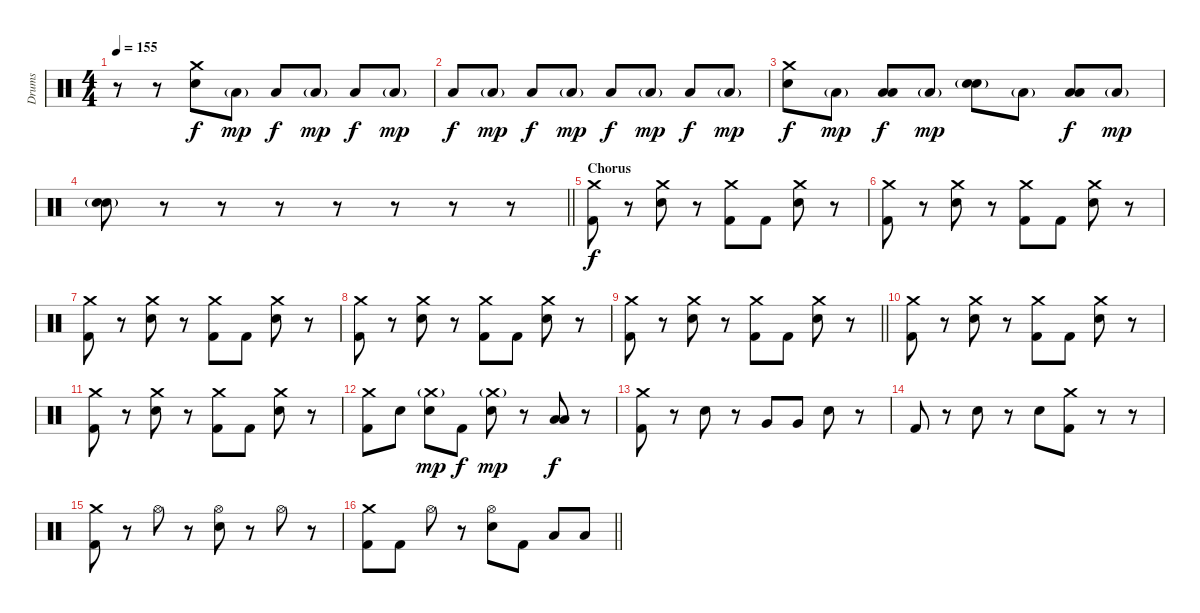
\track ("Drums" "Drums") {instrument percussion}
\staff {score}
\articulation defaults
\ts (4 4)
\tempo 155
\clef neutral
\ks c
r.8{dy f} r.8 ("Crash medium (hit)" "Electric Snare (hit)").8 "Low Tom (hit)"{g}.8{dy mp} "Low Tom (hit)".8{dy f} "Low Tom (hit)"{g}.8{dy mp} "Low Tom (hit)".8{dy f} "Low Tom (hit)"{g}.8{dy mp} |
"Low Tom (hit)".8{dy f} "Low Tom (hit)"{g}.8{dy mp} "Low Tom (hit)".8{dy f} "Low Tom (hit)"{g}.8{dy mp} "Low Tom (hit)".8{dy f} "Low Tom (hit)"{g}.8{dy mp} "Low Tom (hit)".8{dy f} "Low Tom (hit)"{g}.8{dy mp} |
("Crash medium (hit)" "Electric Snare (hit)").8{dy f} "Low Tom (hit)"{g}.8{dy mp} ("Low Tom (hit)" "Low Tom (hit)").8{dy f} "Low Tom (hit)"{g}.8{dy mp} ("Electric Snare (hit)"{g} "Electric Snare (hit)").8 "Low Tom (hit)"{g}.8 ("Low Tom (hit)" "Low Tom (hit)").8{dy f} "Low Tom (hit)"{g}.8{dy mp} |
\barLineRight lightlight
("Electric Snare (hit)"{g} "Electric Snare (hit)").8 r.8 r.8 r.8 r.8 r.8 r.8 r.8 |
\section ("" "Chorus")
("Crash medium (hit)" "Kick (hit) 2").8{dy f} r.8 ("Crash medium (hit)" "Electric Snare (hit)").8 r.8 ("Crash medium (hit)" "Kick (hit) 2").8 "Kick (hit) 2".8 ("Crash medium (hit)" "Electric Snare (hit)").8 r.8 |
("Crash medium (hit)" "Kick (hit) 2").8 r.8 ("Crash medium (hit)" "Electric Snare (hit)").8 r.8 ("Crash medium (hit)" "Kick (hit) 2").8 "Kick (hit) 2".8 ("Crash medium (hit)" "Electric Snare (hit)").8 r.8 |
("Crash medium (hit)" "Kick (hit) 2").8 r.8 ("Crash medium (hit)" "Electric Snare (hit)").8 r.8 ("Crash medium (hit)" "Kick (hit) 2").8 "Kick (hit) 2".8 ("Crash medium (hit)" "Electric Snare (hit)").8 r.8 |
("Crash medium (hit)" "Kick (hit) 2").8 r.8 ("Crash medium (hit)" "Electric Snare (hit)").8 r.8 ("Crash medium (hit)" "Kick (hit) 2").8 "Kick (hit) 2".8 ("Crash medium (hit)" "Electric Snare (hit)").8 r.8 |
\barLineRight lightlight
("Crash medium (hit)" "Kick (hit) 2").8 r.8 ("Crash medium (hit)" "Electric Snare (hit)").8 r.8 ("Crash medium (hit)" "Kick (hit) 2").8 "Kick (hit) 2".8 ("Crash medium (hit)" "Electric Snare (hit)").8 r.8 |
("Crash medium (hit)" "Kick (hit) 2").8 r.8 ("Crash medium (hit)" "Electric Snare (hit)").8 r.8 ("Crash medium (hit)" "Kick (hit) 2").8 "Kick (hit) 2".8 ("Crash medium (hit)" "Electric Snare (hit)").8 r.8 |
("Crash medium (hit)" "Kick (hit) 2").8 r.8 ("Crash medium (hit)" "Electric Snare (hit)").8 r.8 ("Crash medium (hit)" "Kick (hit) 2").8 "Kick (hit) 2".8 ("Crash medium (hit)" "Electric Snare (hit)").8 r.8 |
("Crash medium (hit)" "Kick (hit) 2").8 "Electric Snare (hit)".8 ("Crash medium (hit)"{g} "Electric Snare (hit)").8{dy mp} "Kick (hit) 2".8{dy f} ("Crash medium (hit)"{g} "Electric Snare (hit)").8{dy mp} r.8 ("Low Tom (hit)" "Low Tom (hit)").8{dy f} r.8 |
("Crash medium (hit)" "Kick (hit) 2").8 r.8 "Electric Snare (hit)".8 r.8 "Very Low Tom (hit)".8 "Very Low Tom (hit)".8 "Electric Snare (hit)".8 r.8 |
"Kick (hit) 2".8 r.8 "Electric Snare (hit)".8 r.8 "Electric Snare (hit)".8 ("Crash medium (hit)" "Kick (hit) 2").8 r.8 r.8 |
("Crash medium (hit)" "Kick (hit) 2").8 r.8 "Hi-Hat (open)".8 r.8 ("Hi-Hat (open)" "Electric Snare (hit)").8 r.8 "Hi-Hat (open)".8 r.8 |
\barLineRight lightlight
("Crash medium (hit)" "Kick (hit) 2").8 "Kick (hit) 2".8 "Hi-Hat (open)".8 r.8 ("Hi-Hat (open)" "Electric Snare (hit)").8 "Kick (hit) 2".8 "Low Tom (hit)".8 "Low Tom (hit)".8
